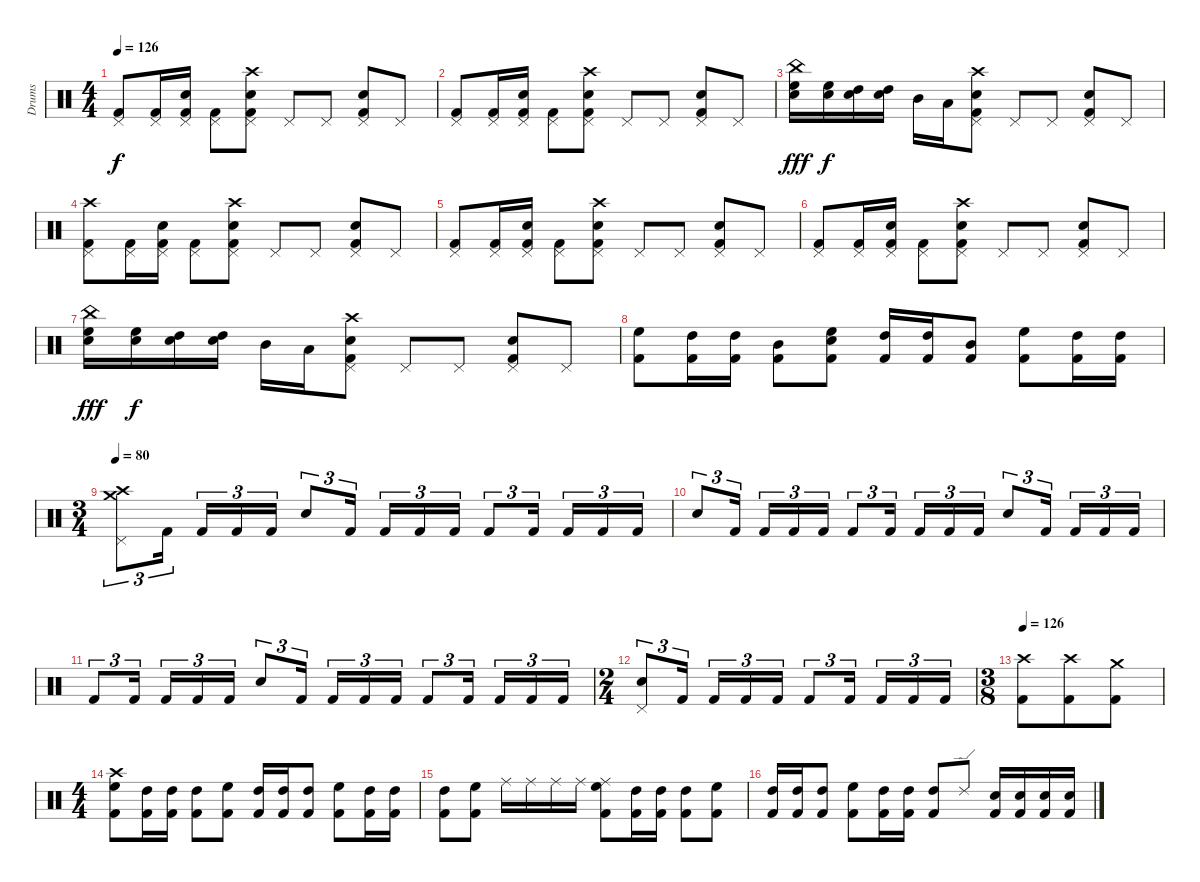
\track ("Drums" "Drums") {instrument percussion}
\staff {score}
\articulation defaults
\ts (4 4)
\tempo 126
\clef neutral
\ks c
("Kick (hit) 2" "Pedal Hi-Hat (hit)").8{dy f} ("Kick (hit) 2" "Pedal Hi-Hat (hit)").16 ("Electric Snare (hit)" "Kick (hit) 2" "Pedal Hi-Hat (hit)").16 ("Kick (hit) 2" "Pedal Hi-Hat (hit)").8 ("Crash high (hit)" "Electric Snare (hit)" "Kick (hit) 2" "Pedal Hi-Hat (hit)").8 "Pedal Hi-Hat (hit)".8 "Pedal Hi-Hat (hit)".8 ("Electric Snare (hit)" "Kick (hit) 2" "Pedal Hi-Hat (hit)").8 "Pedal Hi-Hat (hit)".8 |
("Kick (hit) 2" "Pedal Hi-Hat (hit)").8 ("Kick (hit) 2" "Pedal Hi-Hat (hit)").16 ("Electric Snare (hit)" "Kick (hit) 2" "Pedal Hi-Hat (hit)").16 ("Kick (hit) 2" "Pedal Hi-Hat (hit)").8 ("Crash high (hit)" "Electric Snare (hit)" "Kick (hit) 2" "Pedal Hi-Hat (hit)").8 "Pedal Hi-Hat (hit)".8 "Pedal Hi-Hat (hit)".8 ("Electric Snare (hit)" "Kick (hit) 2" "Pedal Hi-Hat (hit)").8 "Pedal Hi-Hat (hit)".8 |
("High Floor Tom (hit)" "Electric Snare (hit)" "China (hit)").16{dy fff} ("High Floor Tom (hit)" "Electric Snare (hit)").16{dy f} ("High Tom (hit)" "Electric Snare (hit)").16 ("High Tom (hit)" "Electric Snare (hit)").16 "Mid Tom (hit)".16 "Low Tom (hit)".16 ("Crash high (hit)" "Electric Snare (hit)" "Kick (hit) 2" "Pedal Hi-Hat (hit)").8 "Pedal Hi-Hat (hit)".8 "Pedal Hi-Hat (hit)".8 ("Electric Snare (hit)" "Kick (hit) 2" "Pedal Hi-Hat (hit)").8 "Pedal Hi-Hat (hit)".8 |
("Crash high (hit)" "Kick (hit) 2" "Pedal Hi-Hat (hit)").8 ("Kick (hit) 2" "Pedal Hi-Hat (hit)").16 ("Electric Snare (hit)" "Kick (hit) 2" "Pedal Hi-Hat (hit)").16 ("Kick (hit) 2" "Pedal Hi-Hat (hit)").8 ("Crash high (hit)" "Electric Snare (hit)" "Kick (hit) 2" "Pedal Hi-Hat (hit)").8 "Pedal Hi-Hat (hit)".8 "Pedal Hi-Hat (hit)".8 ("Electric Snare (hit)" "Kick (hit) 2" "Pedal Hi-Hat (hit)").8 "Pedal Hi-Hat (hit)".8 |
("Kick (hit) 2" "Pedal Hi-Hat (hit)").8 ("Kick (hit) 2" "Pedal Hi-Hat (hit)").16 ("Electric Snare (hit)" "Kick (hit) 2" "Pedal Hi-Hat (hit)").16 ("Kick (hit) 2" "Pedal Hi-Hat (hit)").8 ("Crash high (hit)" "Electric Snare (hit)" "Kick (hit) 2" "Pedal Hi-Hat (hit)").8 "Pedal Hi-Hat (hit)".8 "Pedal Hi-Hat (hit)".8 ("Electric Snare (hit)" "Kick (hit) 2" "Pedal Hi-Hat (hit)").8 "Pedal Hi-Hat (hit)".8 |
("Kick (hit) 2" "Pedal Hi-Hat (hit)").8 ("Kick (hit) 2" "Pedal Hi-Hat (hit)").16 ("Electric Snare (hit)" "Kick (hit) 2" "Pedal Hi-Hat (hit)").16 ("Kick (hit) 2" "Pedal Hi-Hat (hit)").8 ("Crash high (hit)" "Electric Snare (hit)" "Kick (hit) 2" "Pedal Hi-Hat (hit)").8 "Pedal Hi-Hat (hit)".8 "Pedal Hi-Hat (hit)".8 ("Electric Snare (hit)" "Kick (hit) 2" "Pedal Hi-Hat (hit)").8 "Pedal Hi-Hat (hit)".8 |
("High Floor Tom (hit)" "Electric Snare (hit)" "China (hit)").16{dy fff} ("High Floor Tom (hit)" "Electric Snare (hit)").16{dy f} ("High Tom (hit)" "Electric Snare (hit)").16 ("High Tom (hit)" "Electric Snare (hit)").16 "Mid Tom (hit)".16 "Low Tom (hit)".16 ("Crash high (hit)" "Electric Snare (hit)" "Kick (hit) 2" "Pedal Hi-Hat (hit)").8 "Pedal Hi-Hat (hit)".8 "Pedal Hi-Hat (hit)".8 ("Electric Snare (hit)" "Kick (hit) 2" "Pedal Hi-Hat (hit)").8 "Pedal Hi-Hat (hit)".8 |
("High Floor Tom (hit)" "Kick (hit) 2").8 ("High Tom (hit)" "Kick (hit) 2").16 ("High Tom (hit)" "Kick (hit) 2").16 ("Mid Tom (hit)" "Kick (hit) 2").8 ("Electric Snare (hit)" "High Floor Tom (hit)" "Kick (hit) 2").8 ("High Tom (hit)" "Kick (hit) 2").16 ("High Tom (hit)" "Kick (hit) 2").16 ("Mid Tom (hit)" "Kick (hit) 2").8 ("High Floor Tom (hit)" "Kick (hit) 2").8 ("High Tom (hit)" "Kick (hit) 2").16 ("High Tom (hit)" "Kick (hit) 2").16 |
\ts (3 4)
\tempo 80
("Crash medium (hit)" "Crash high (hit)" "Pedal Hi-Hat (hit)").8{tu (3 2)} "Kick (hit) 2".16{tu (3 2)} "Kick (hit) 2".16{tu (3 2)} "Kick (hit) 2".16{tu (3 2)} "Kick (hit) 2".16{tu (3 2)} "Electric Snare (hit)".8{tu (3 2)} "Kick (hit) 2".16{tu (3 2)} "Kick (hit) 2".16{tu (3 2)} "Kick (hit) 2".16{tu (3 2)} "Kick (hit) 2".16{tu (3 2)} "Kick (hit) 2".8{tu (3 2)} "Kick (hit) 2".16{tu (3 2)} "Kick (hit) 2".16{tu (3 2)} "Kick (hit) 2".16{tu (3 2)} "Kick (hit) 2".16{tu (3 2)} |
"Electric Snare (hit)".8{tu (3 2)} "Kick (hit) 2".16{tu (3 2)} "Kick (hit) 2".16{tu (3 2)} "Kick (hit) 2".16{tu (3 2)} "Kick (hit) 2".16{tu (3 2)} "Kick (hit) 2".8{tu (3 2)} "Kick (hit) 2".16{tu (3 2)} "Kick (hit) 2".16{tu (3 2)} "Kick (hit) 2".16{tu (3 2)} "Kick (hit) 2".16{tu (3 2)} "Electric Snare (hit)".8{tu (3 2)} "Kick (hit) 2".16{tu (3 2)} "Kick (hit) 2".16{tu (3 2)} "Kick (hit) 2".16{tu (3 2)} "Kick (hit) 2".16{tu (3 2)} |
"Kick (hit) 2".8{tu (3 2)} "Kick (hit) 2".16{tu (3 2)} "Kick (hit) 2".16{tu (3 2)} "Kick (hit) 2".16{tu (3 2)} "Kick (hit) 2".16{tu (3 2)} "Electric Snare (hit)".8{tu (3 2)} "Kick (hit) 2".16{tu (3 2)} "Kick (hit) 2".16{tu (3 2)} "Kick (hit) 2".16{tu (3 2)} "Kick (hit) 2".16{tu (3 2)} "Kick (hit) 2".8{tu (3 2)} "Kick (hit) 2".16{tu (3 2)} "Kick (hit) 2".16{tu (3 2)} "Kick (hit) 2".16{tu (3 2)} "Kick (hit) 2".16{tu (3 2)} |
\ts (2 4)
("Electric Snare (hit)" "Pedal Hi-Hat (hit)").8{tu (3 2)} "Kick (hit) 2".16{tu (3 2)} "Kick (hit) 2".16{tu (3 2)} "Kick (hit) 2".16{tu (3 2)} "Kick (hit) 2".16{tu (3 2)} "Kick (hit) 2".8{tu (3 2)} "Kick (hit) 2".16{tu (3 2)} "Kick (hit) 2".16{tu (3 2)} "Kick (hit) 2".16{tu (3 2)} "Kick (hit) 2".16{tu (3 2)} |
\ts (3 8)
\tempo 133
\tempo 126
("Crash high (hit)" "Kick (hit) 2").8 ("Crash high (hit)" "Kick (hit) 2").8 ("Crash medium (hit)" "Kick (hit) 2").8 |
\ts (4 4)
("Crash high (hit)" "High Floor Tom (hit)" "Kick (hit) 2").8 ("High Tom (hit)" "Kick (hit) 2").16 ("High Tom (hit)" "Kick (hit) 2").16 ("High Tom (hit)" "Kick (hit) 2").8 ("High Floor Tom (hit)" "Kick (hit) 2").8 ("High Tom (hit)" "Kick (hit) 2").16 ("High Tom (hit)" "Kick (hit) 2").16 ("High Tom (hit)" "Kick (hit) 2").8 ("High Floor Tom (hit)" "Kick (hit) 2").8 ("High Tom (hit)" "Kick (hit) 2").16 ("High Tom (hit)" "Kick (hit) 2").16 |
("High Tom (hit)" "Kick (hit) 2").8 ("High Floor Tom (hit)" "Kick (hit) 2").8 "Ride (middle)".16 "Ride (middle)".16 "Ride (middle)".16 "Ride (middle)".16 ("Ride (middle)" "High Floor Tom (hit)" "Kick (hit) 2").8 ("High Tom (hit)" "Kick (hit) 2").16 ("High Tom (hit)" "Kick (hit) 2").16 ("High Tom (hit)" "Kick (hit) 2").8 ("High Floor Tom (hit)" "Kick (hit) 2").8 |
("High Tom (hit)" "Kick (hit) 2").16 ("High Tom (hit)" "Kick (hit) 2").16 ("High Tom (hit)" "Kick (hit) 2").8 ("High Floor Tom (hit)" "Kick (hit) 2").8 ("High Tom (hit)" "Kick (hit) 2").16 ("High Tom (hit)" "Kick (hit) 2").16 ("High Tom (hit)" "Kick (hit) 2").8 "Ride (edge) 2".8 ("Electric Snare (hit)" "Kick (hit) 2").16 ("Electric Snare (hit)" "Kick (hit) 2").16 ("Electric Snare (hit)" "Kick (hit) 2").16 ("Electric Snare (hit)" "Kick (hit) 2").16
